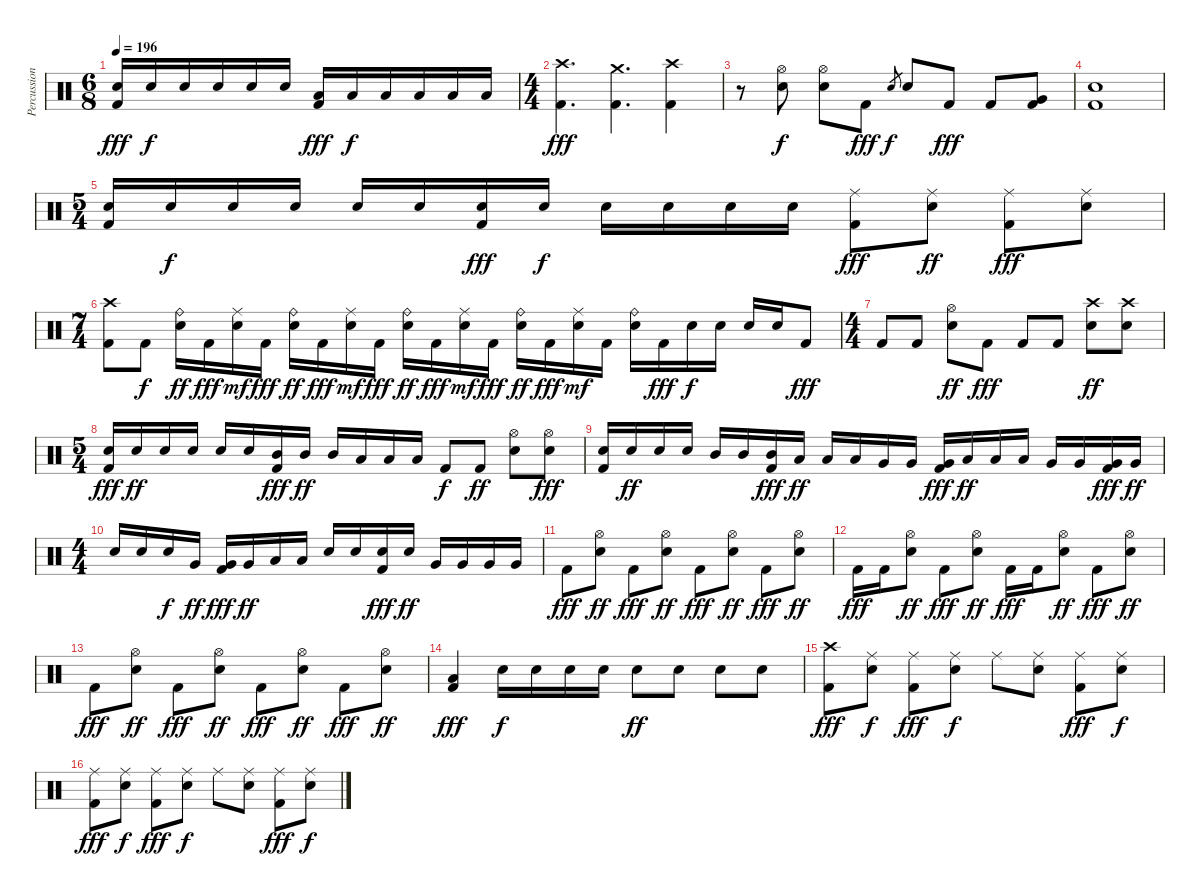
\track ("Percussion" "Percussion") {instrument percussion}
\staff {score}
\articulation defaults
\ts (6 8)
\tempo 196
\clef neutral
\ks c
("Electric Snare (hit)" "Kick (hit) 2").16{dy fff} "Electric Snare (hit)".16{dy f} "Electric Snare (hit)".16 "Electric Snare (hit)".16 "Electric Snare (hit)".16 "Electric Snare (hit)".16 ("Low Tom (hit)" "Kick (hit) 2").16{dy fff} "Low Tom (hit)".16{dy f} "Low Tom (hit)".16 "Low Tom (hit)".16 "Low Tom (hit)".16 "Low Tom (hit)".16 |
\ts (4 4)
("Crash high (hit)" "Kick (hit) 2").4{d dy fff} ("Crash medium (hit)" "Kick (hit) 2").4{d} ("Crash high (hit)" "Kick (hit) 2").4 |
r.8 ("Hi-Hat (open)" "Electric Snare (hit)").8{dy f} ("Hi-Hat (open)" "Electric Snare (hit)").8 "Kick (hit) 2".8{dy fff} "Electric Snare (hit)".8{gr dy f} "Electric Snare (hit)".8 "Kick (hit) 2".8{dy fff} "Kick (hit) 2".8 ("Very Low Tom (hit)" "Kick (hit) 2").8 |
("Electric Snare (hit)" "Kick (hit) 2").1 |
\ts (5 4)
("Electric Snare (hit)" "Kick (hit) 2").16 "Electric Snare (hit)".16{dy f} "Electric Snare (hit)".16 "Electric Snare (hit)".16 "Electric Snare (hit)".16 "Electric Snare (hit)".16 ("Electric Snare (hit)" "Kick (hit) 2").16{dy fff} "Electric Snare (hit)".16{dy f} "Electric Snare (hit)".16 "Electric Snare (hit)".16 "Electric Snare (hit)".16 "Electric Snare (hit)".16 ("Ride (middle)" "Kick (hit) 2").8{dy fff} ("Ride (middle)" "Electric Snare (hit)").8{dy ff} ("Ride (middle)" "Kick (hit) 2").8{dy fff} ("Ride (middle)" "Electric Snare (hit)").8 |
\ts (7 4)
("Crash high (hit)" "Kick (hit) 2").8 "Kick (hit) 2".8{dy f} ("Ride (bell)" "Electric Snare (hit)").16{dy ff} "Kick (hit) 2".16{dy fff} ("Ride (middle)" "Electric Snare (hit)").16{dy mf} "Kick (hit) 2".16{dy fff} ("Ride (bell)" "Electric Snare (hit)").16{dy ff} "Kick (hit) 2".16{dy fff} ("Ride (middle)" "Electric Snare (hit)").16{dy mf} "Kick (hit) 2".16{dy fff} ("Ride (bell)" "Electric Snare (hit)").16{dy ff} "Kick (hit) 2".16{dy fff} ("Ride (middle)" "Electric Snare (hit)").16{dy mf} "Kick (hit) 2".16{dy fff} ("Ride (bell)" "Electric Snare (hit)").16{dy ff} "Kick (hit) 2".16{dy fff} ("Ride (middle)" "Electric Snare (hit)").16{dy mf} "Kick (hit) 2".16 ("Ride (bell)" "Electric Snare (hit)").16 "Kick (hit) 2".16{dy fff} "Electric Snare (hit)".16{dy f} "Electric Snare (hit)".16 "Electric Snare (hit)".16 "Electric Snare (hit)".16 "Kick (hit) 2".8{dy fff} |
\ts (4 4)
"Kick (hit) 2".8 "Kick (hit) 2".8 ("Hi-Hat (open)" "Electric Snare (hit)").8{dy ff} "Kick (hit) 2".8{dy fff} "Kick (hit) 2".8 "Kick (hit) 2".8 ("Crash high (hit)" "Electric Snare (hit)").8{dy ff} ("Crash high (hit)" "Electric Snare (hit)").8 |
\ts (5 4)
("Electric Snare (hit)" "Kick (hit) 2").16{dy fff} "Electric Snare (hit)".16{dy ff} "Electric Snare (hit)".16 "Electric Snare (hit)".16 "Electric Snare (hit)".16 "Electric Snare (hit)".16 ("Mid Tom (hit)" "Kick (hit) 2").16{dy fff} "Mid Tom (hit)".16{dy ff} "Mid Tom (hit)".16 "Low Tom (hit)".16 "Low Tom (hit)".16 "Low Tom (hit)".16 "Kick (hit) 2".8{dy f} "Kick (hit) 2".8{dy ff} ("Hi-Hat (open)" "Electric Snare (hit)").8 ("Hi-Hat (open)" "Electric Snare (hit)").8{dy fff} |
("Electric Snare (hit)" "Kick (hit) 2").16 "Electric Snare (hit)".16{dy ff} "Electric Snare (hit)".16 "Electric Snare (hit)".16 "Mid Tom (hit)".16 "Mid Tom (hit)".16 ("Mid Tom (hit)" "Kick (hit) 2").16{dy fff} "Low Tom (hit)".16{dy ff} "Low Tom (hit)".16 "Low Tom (hit)".16 "Very Low Tom (hit)".16 "Very Low Tom (hit)".16 ("Very Low Tom (hit)" "Kick (hit) 2").16{dy fff} "Low Tom (hit)".16{dy ff} "Low Tom (hit)".16 "Low Tom (hit)".16 "Very Low Tom (hit)".16 "Very Low Tom (hit)".16 ("Very Low Tom (hit)" "Kick (hit) 2").16{dy fff} "Very Low Tom (hit)".16{dy ff} |
\ts (4 4)
"Electric Snare (hit)".16 "Electric Snare (hit)".16 "Electric Snare (hit)".16{dy f} "Very Low Tom (hit)".16{dy ff} ("Very Low Tom (hit)" "Kick (hit) 2").16{dy fff} "Very Low Tom (hit)".16{dy ff} "Low Tom (hit)".16 "Low Tom (hit)".16 "Electric Snare (hit)".16 "Electric Snare (hit)".16 ("Electric Snare (hit)" "Kick (hit) 2").16{dy fff} "Electric Snare (hit)".16{dy ff} "Very Low Tom (hit)".16 "Very Low Tom (hit)".16 "Very Low Tom (hit)".16 "Very Low Tom (hit)".16 |
"Kick (hit) 2".8{dy fff} ("Hi-Hat (open)" "Electric Snare (hit)").8{dy ff} "Kick (hit) 2".8{dy fff} ("Hi-Hat (open)" "Electric Snare (hit)").8{dy ff} "Kick (hit) 2".8{dy fff} ("Hi-Hat (open)" "Electric Snare (hit)").8{dy ff} "Kick (hit) 2".8{dy fff} ("Hi-Hat (open)" "Electric Snare (hit)").8{dy ff} |
"Kick (hit) 2".16{dy fff} "Kick (hit) 2".16 ("Hi-Hat (open)" "Electric Snare (hit)").8{dy ff} "Kick (hit) 2".8{dy fff} ("Hi-Hat (open)" "Electric Snare (hit)").8{dy ff} "Kick (hit) 2".16{dy fff} "Kick (hit) 2".16 ("Hi-Hat (open)" "Electric Snare (hit)").8{dy ff} "Kick (hit) 2".8{dy fff} ("Hi-Hat (open)" "Electric Snare (hit)").8{dy ff} |
"Kick (hit) 2".8{dy fff} ("Hi-Hat (open)" "Electric Snare (hit)").8{dy ff} "Kick (hit) 2".8{dy fff} ("Hi-Hat (open)" "Electric Snare (hit)").8{dy ff} "Kick (hit) 2".8{dy fff} ("Hi-Hat (open)" "Electric Snare (hit)").8{dy ff} "Kick (hit) 2".8{dy fff} ("Hi-Hat (open)" "Electric Snare (hit)").8{dy ff} |
("Low Tom (hit)" "Kick (hit) 2").4{dy fff} "Electric Snare (hit)".16{dy f} "Electric Snare (hit)".16 "Electric Snare (hit)".16 "Electric Snare (hit)".16 "Electric Snare (hit)".8{dy ff} "Electric Snare (hit)".8 "Electric Snare (hit)".8 "Electric Snare (hit)".8 |
("Crash high (hit)" "Kick (hit) 2").8{dy fff} ("Ride (middle)" "Electric Snare (hit)").8{dy f} ("Ride (middle)" "Kick (hit) 2").8{dy fff} ("Ride (middle)" "Electric Snare (hit)").8{dy f} "Ride (middle)".8 ("Ride (middle)" "Electric Snare (hit)").8 ("Ride (middle)" "Kick (hit) 2").8{dy fff} ("Ride (middle)" "Electric Snare (hit)").8{dy f} |
("Ride (middle)" "Kick (hit) 2").8{dy fff} ("Ride (middle)" "Electric Snare (hit)").8{dy f} ("Ride (middle)" "Kick (hit) 2").8{dy fff} ("Ride (middle)" "Electric Snare (hit)").8{dy f} "Ride (middle)".8 ("Ride (middle)" "Electric Snare (hit)").8 ("Ride (middle)" "Kick (hit) 2").8{dy fff} ("Ride (middle)" "Electric Snare (hit)").8{dy f}
